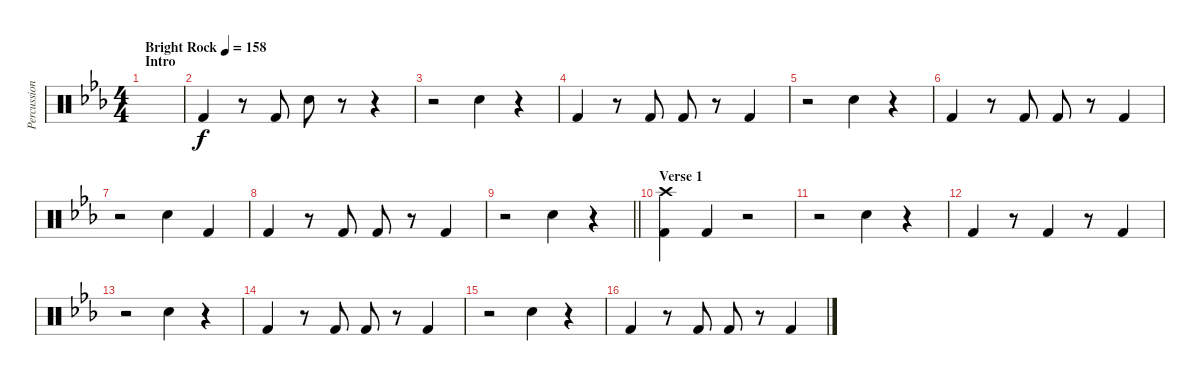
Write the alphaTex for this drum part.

\track ("Percussion" "Percussion") {instrument percussion}
\staff {score}
\articulation defaults
\ts (4 4)
\section ("" "Intro")
\tempo (158 "Bright Rock")
\clef neutral
\ks eb
|
"Kick (hit) 2".4 r.8 "Kick (hit) 2".8 "Snare (hit) 2".8 r.8 r.4 |
r.2 "Snare (hit) 2".4 r.4 |
"Kick (hit) 2".4 r.8 "Kick (hit) 2".8 "Kick (hit) 2".8 r.8 "Kick (hit) 2".4 |
r.2 "Snare (hit) 2".4 r.4 |
"Kick (hit) 2".4 r.8 "Kick (hit) 2".8 "Kick (hit) 2".8 r.8 "Kick (hit) 2".4 |
r.2 "Snare (hit) 2".4 "Kick (hit) 2".4 |
"Kick (hit) 2".4 r.8 "Kick (hit) 2".8 "Kick (hit) 2".8 r.8 "Kick (hit) 2".4 |
\barLineRight lightlight
r.2 "Snare (hit) 2".4 r.4 |
\section ("" "Verse 1")
("Kick (hit) 2" "Crash high (hit)").4 "Kick (hit) 2".4 r.2 |
r.2 "Snare (hit) 2".4 r.4 |
"Kick (hit) 2".4 r.8 "Kick (hit) 2".4 r.8 "Kick (hit) 2".4 |
r.2 "Snare (hit) 2".4 r.4 |
"Kick (hit) 2".4 r.8 "Kick (hit) 2".8 "Kick (hit) 2".8 r.8 "Kick (hit) 2".4 |
r.2 "Snare (hit) 2".4 r.4 |
"Kick (hit) 2".4 r.8 "Kick (hit) 2".8 "Kick (hit) 2".8 r.8 "Kick (hit) 2".4
